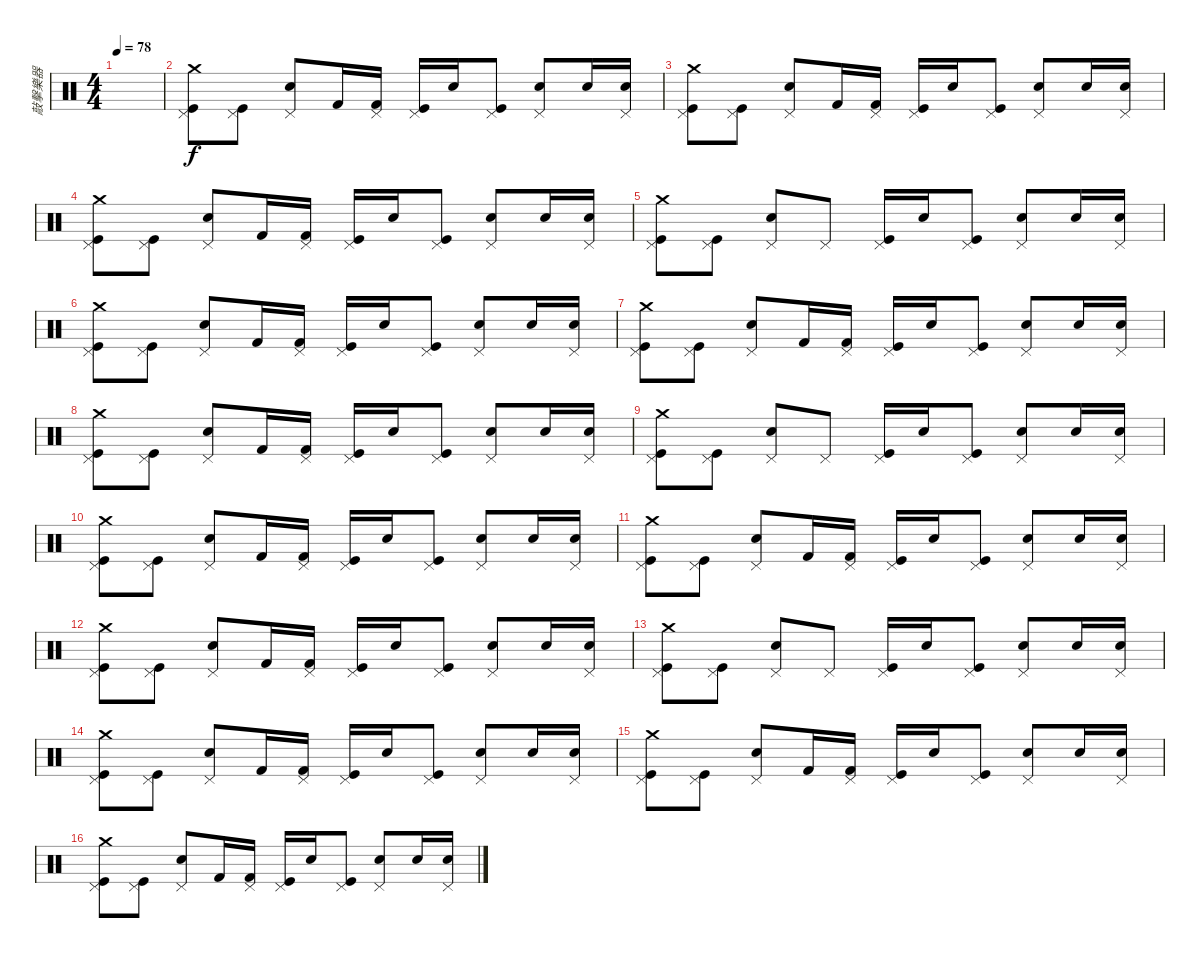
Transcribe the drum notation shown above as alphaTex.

\track ("敲擊樂器" "敲擊樂器") {instrument percussion}
\staff {score}
\articulation defaults
\ts (4 4)
\tempo 78
\clef neutral
\ks c
|
("Pedal Hi-Hat (hit)" "Kick (hit)" "Crash medium (hit)").8 ("Pedal Hi-Hat (hit)" "Kick (hit)").8 ("Pedal Hi-Hat (hit)" "Electric Snare (hit)").8 "Kick (hit) 2".16 ("Pedal Hi-Hat (hit)" "Kick (hit) 2").16 ("Pedal Hi-Hat (hit)" "Kick (hit)").16 "Electric Snare (hit)".16 ("Pedal Hi-Hat (hit)" "Kick (hit)").8 ("Pedal Hi-Hat (hit)" "Electric Snare (hit)").8 "Electric Snare (hit)".16 ("Pedal Hi-Hat (hit)" "Electric Snare (hit)").16 |
("Pedal Hi-Hat (hit)" "Kick (hit)" "Crash medium (hit)").8 ("Pedal Hi-Hat (hit)" "Kick (hit)").8 ("Pedal Hi-Hat (hit)" "Electric Snare (hit)").8 "Kick (hit) 2".16 ("Pedal Hi-Hat (hit)" "Kick (hit) 2").16 ("Pedal Hi-Hat (hit)" "Kick (hit)").16 "Electric Snare (hit)".16 ("Pedal Hi-Hat (hit)" "Kick (hit)").8 ("Pedal Hi-Hat (hit)" "Electric Snare (hit)").8 "Electric Snare (hit)".16 ("Pedal Hi-Hat (hit)" "Electric Snare (hit)").16 |
("Pedal Hi-Hat (hit)" "Kick (hit)" "Crash medium (hit)").8 ("Pedal Hi-Hat (hit)" "Kick (hit)").8 ("Pedal Hi-Hat (hit)" "Electric Snare (hit)").8 "Kick (hit) 2".16 ("Pedal Hi-Hat (hit)" "Kick (hit) 2").16 ("Pedal Hi-Hat (hit)" "Kick (hit)").16 "Electric Snare (hit)".16 ("Pedal Hi-Hat (hit)" "Kick (hit)").8 ("Pedal Hi-Hat (hit)" "Electric Snare (hit)").8 "Electric Snare (hit)".16 ("Pedal Hi-Hat (hit)" "Electric Snare (hit)").16 |
("Pedal Hi-Hat (hit)" "Kick (hit)" "Crash medium (hit)").8 ("Pedal Hi-Hat (hit)" "Kick (hit)").8 ("Pedal Hi-Hat (hit)" "Electric Snare (hit)").8 "Pedal Hi-Hat (hit)".8 ("Pedal Hi-Hat (hit)" "Kick (hit)").16 "Electric Snare (hit)".16 ("Pedal Hi-Hat (hit)" "Kick (hit)").8 ("Pedal Hi-Hat (hit)" "Electric Snare (hit)").8 "Electric Snare (hit)".16 ("Pedal Hi-Hat (hit)" "Electric Snare (hit)").16 |
("Pedal Hi-Hat (hit)" "Kick (hit)" "Crash medium (hit)").8 ("Pedal Hi-Hat (hit)" "Kick (hit)").8 ("Pedal Hi-Hat (hit)" "Electric Snare (hit)").8 "Kick (hit) 2".16 ("Pedal Hi-Hat (hit)" "Kick (hit) 2").16 ("Pedal Hi-Hat (hit)" "Kick (hit)").16 "Electric Snare (hit)".16 ("Pedal Hi-Hat (hit)" "Kick (hit)").8 ("Pedal Hi-Hat (hit)" "Electric Snare (hit)").8 "Electric Snare (hit)".16 ("Pedal Hi-Hat (hit)" "Electric Snare (hit)").16 |
("Pedal Hi-Hat (hit)" "Kick (hit)" "Crash medium (hit)").8 ("Pedal Hi-Hat (hit)" "Kick (hit)").8 ("Pedal Hi-Hat (hit)" "Electric Snare (hit)").8 "Kick (hit) 2".16 ("Pedal Hi-Hat (hit)" "Kick (hit) 2").16 ("Pedal Hi-Hat (hit)" "Kick (hit)").16 "Electric Snare (hit)".16 ("Pedal Hi-Hat (hit)" "Kick (hit)").8 ("Pedal Hi-Hat (hit)" "Electric Snare (hit)").8 "Electric Snare (hit)".16 ("Pedal Hi-Hat (hit)" "Electric Snare (hit)").16 |
("Pedal Hi-Hat (hit)" "Kick (hit)" "Crash medium (hit)").8 ("Pedal Hi-Hat (hit)" "Kick (hit)").8 ("Pedal Hi-Hat (hit)" "Electric Snare (hit)").8 "Kick (hit) 2".16 ("Pedal Hi-Hat (hit)" "Kick (hit) 2").16 ("Pedal Hi-Hat (hit)" "Kick (hit)").16 "Electric Snare (hit)".16 ("Pedal Hi-Hat (hit)" "Kick (hit)").8 ("Pedal Hi-Hat (hit)" "Electric Snare (hit)").8 "Electric Snare (hit)".16 ("Pedal Hi-Hat (hit)" "Electric Snare (hit)").16 |
("Pedal Hi-Hat (hit)" "Kick (hit)" "Crash medium (hit)").8 ("Pedal Hi-Hat (hit)" "Kick (hit)").8 ("Pedal Hi-Hat (hit)" "Electric Snare (hit)").8 "Pedal Hi-Hat (hit)".8 ("Pedal Hi-Hat (hit)" "Kick (hit)").16 "Electric Snare (hit)".16 ("Pedal Hi-Hat (hit)" "Kick (hit)").8 ("Pedal Hi-Hat (hit)" "Electric Snare (hit)").8 "Electric Snare (hit)".16 ("Pedal Hi-Hat (hit)" "Electric Snare (hit)").16 |
("Pedal Hi-Hat (hit)" "Kick (hit)" "Crash medium (hit)").8 ("Pedal Hi-Hat (hit)" "Kick (hit)").8 ("Pedal Hi-Hat (hit)" "Electric Snare (hit)").8 "Kick (hit) 2".16 ("Pedal Hi-Hat (hit)" "Kick (hit) 2").16 ("Pedal Hi-Hat (hit)" "Kick (hit)").16 "Electric Snare (hit)".16 ("Pedal Hi-Hat (hit)" "Kick (hit)").8 ("Pedal Hi-Hat (hit)" "Electric Snare (hit)").8 "Electric Snare (hit)".16 ("Pedal Hi-Hat (hit)" "Electric Snare (hit)").16 |
("Pedal Hi-Hat (hit)" "Kick (hit)" "Crash medium (hit)").8 ("Pedal Hi-Hat (hit)" "Kick (hit)").8 ("Pedal Hi-Hat (hit)" "Electric Snare (hit)").8 "Kick (hit) 2".16 ("Pedal Hi-Hat (hit)" "Kick (hit) 2").16 ("Pedal Hi-Hat (hit)" "Kick (hit)").16 "Electric Snare (hit)".16 ("Pedal Hi-Hat (hit)" "Kick (hit)").8 ("Pedal Hi-Hat (hit)" "Electric Snare (hit)").8 "Electric Snare (hit)".16 ("Pedal Hi-Hat (hit)" "Electric Snare (hit)").16 |
("Pedal Hi-Hat (hit)" "Kick (hit)" "Crash medium (hit)").8 ("Pedal Hi-Hat (hit)" "Kick (hit)").8 ("Pedal Hi-Hat (hit)" "Electric Snare (hit)").8 "Kick (hit) 2".16 ("Pedal Hi-Hat (hit)" "Kick (hit) 2").16 ("Pedal Hi-Hat (hit)" "Kick (hit)").16 "Electric Snare (hit)".16 ("Pedal Hi-Hat (hit)" "Kick (hit)").8 ("Pedal Hi-Hat (hit)" "Electric Snare (hit)").8 "Electric Snare (hit)".16 ("Pedal Hi-Hat (hit)" "Electric Snare (hit)").16 |
("Pedal Hi-Hat (hit)" "Kick (hit)" "Crash medium (hit)").8 ("Pedal Hi-Hat (hit)" "Kick (hit)").8 ("Pedal Hi-Hat (hit)" "Electric Snare (hit)").8 "Pedal Hi-Hat (hit)".8 ("Pedal Hi-Hat (hit)" "Kick (hit)").16 "Electric Snare (hit)".16 ("Pedal Hi-Hat (hit)" "Kick (hit)").8 ("Pedal Hi-Hat (hit)" "Electric Snare (hit)").8 "Electric Snare (hit)".16 ("Pedal Hi-Hat (hit)" "Electric Snare (hit)").16 |
("Pedal Hi-Hat (hit)" "Kick (hit)" "Crash medium (hit)").8 ("Pedal Hi-Hat (hit)" "Kick (hit)").8 ("Pedal Hi-Hat (hit)" "Electric Snare (hit)").8 "Kick (hit) 2".16 ("Pedal Hi-Hat (hit)" "Kick (hit) 2").16 ("Pedal Hi-Hat (hit)" "Kick (hit)").16 "Electric Snare (hit)".16 ("Pedal Hi-Hat (hit)" "Kick (hit)").8 ("Pedal Hi-Hat (hit)" "Electric Snare (hit)").8 "Electric Snare (hit)".16 ("Pedal Hi-Hat (hit)" "Electric Snare (hit)").16 |
("Pedal Hi-Hat (hit)" "Kick (hit)" "Crash medium (hit)").8 ("Pedal Hi-Hat (hit)" "Kick (hit)").8 ("Pedal Hi-Hat (hit)" "Electric Snare (hit)").8 "Kick (hit) 2".16 ("Pedal Hi-Hat (hit)" "Kick (hit) 2").16 ("Pedal Hi-Hat (hit)" "Kick (hit)").16 "Electric Snare (hit)".16 ("Pedal Hi-Hat (hit)" "Kick (hit)").8 ("Pedal Hi-Hat (hit)" "Electric Snare (hit)").8 "Electric Snare (hit)".16 ("Pedal Hi-Hat (hit)" "Electric Snare (hit)").16 |
("Pedal Hi-Hat (hit)" "Kick (hit)" "Crash medium (hit)").8 ("Pedal Hi-Hat (hit)" "Kick (hit)").8 ("Pedal Hi-Hat (hit)" "Electric Snare (hit)").8 "Kick (hit) 2".16 ("Pedal Hi-Hat (hit)" "Kick (hit) 2").16 ("Pedal Hi-Hat (hit)" "Kick (hit)").16 "Electric Snare (hit)".16 ("Pedal Hi-Hat (hit)" "Kick (hit)").8 ("Pedal Hi-Hat (hit)" "Electric Snare (hit)").8 "Electric Snare (hit)".16 ("Pedal Hi-Hat (hit)" "Electric Snare (hit)").16
